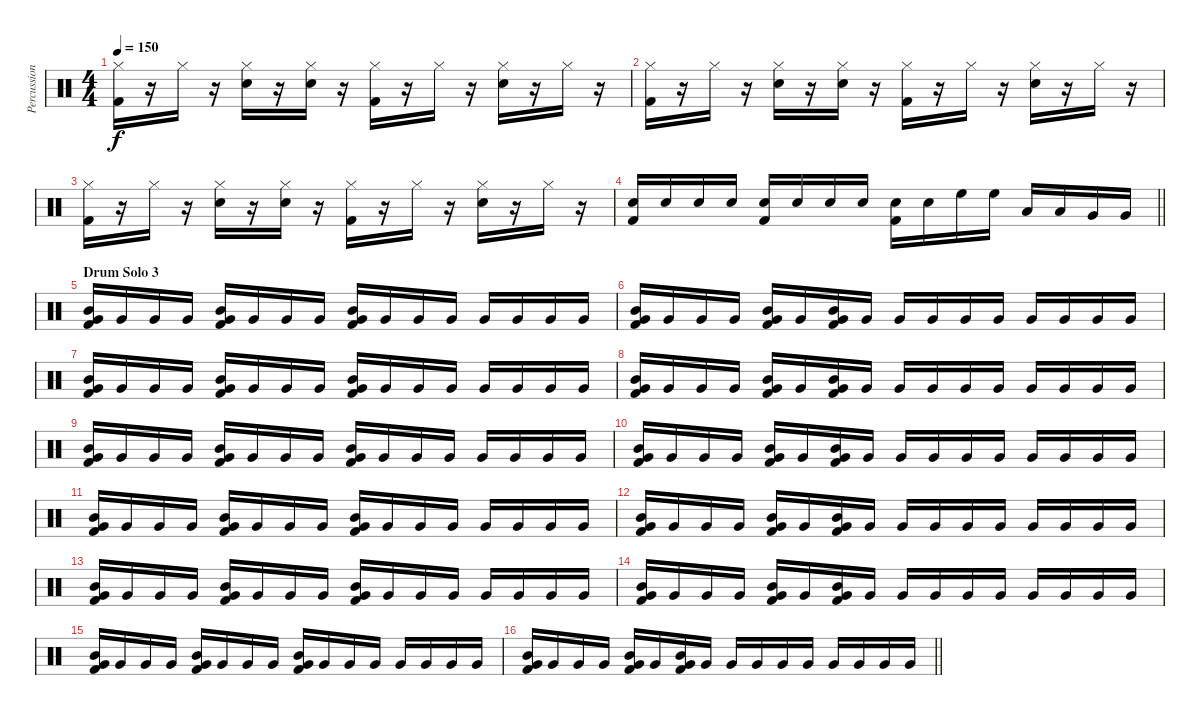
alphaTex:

\track ("Percussion" "Percussion") {instrument percussion}
\staff {score}
\articulation defaults
\ts (4 4)
\tempo 150
\clef neutral
\ks c
("Hi-Hat (closed)" "Kick (hit) 2").16{dy f} r.16 "Hi-Hat (closed)".16 r.16 ("Hi-Hat (closed)" "Snare (hit) 2").16 r.16 ("Hi-Hat (closed)" "Snare (hit) 2").16 r.16 ("Hi-Hat (closed)" "Kick (hit) 2").16 r.16 "Hi-Hat (closed)".16 r.16 ("Hi-Hat (closed)" "Snare (hit) 2").16 r.16 "Hi-Hat (closed)".16 r.16 |
("Hi-Hat (closed)" "Kick (hit) 2").16 r.16 "Hi-Hat (closed)".16 r.16 ("Hi-Hat (closed)" "Snare (hit) 2").16 r.16 ("Hi-Hat (closed)" "Snare (hit) 2").16 r.16 ("Hi-Hat (closed)" "Kick (hit) 2").16 r.16 "Hi-Hat (closed)".16 r.16 ("Hi-Hat (closed)" "Snare (hit) 2").16 r.16 "Hi-Hat (closed)".16 r.16 |
("Hi-Hat (closed)" "Kick (hit) 2").16 r.16 "Hi-Hat (closed)".16 r.16 ("Hi-Hat (closed)" "Snare (hit) 2").16 r.16 ("Hi-Hat (closed)" "Snare (hit) 2").16 r.16 ("Hi-Hat (closed)" "Kick (hit) 2").16 r.16 "Hi-Hat (closed)".16 r.16 ("Hi-Hat (closed)" "Snare (hit) 2").16 r.16 "Hi-Hat (closed)".16 r.16 |
\barLineRight lightlight
("Snare (hit) 2" "Kick (hit) 2").16 "Snare (hit) 2".16 "Snare (hit) 2".16 "Snare (hit) 2".16 ("Snare (hit) 2" "Kick (hit) 2").16 "Snare (hit) 2".16 "Snare (hit) 2".16 "Snare (hit) 2".16 ("Snare (hit) 2" "Kick (hit) 2").16 "Snare (hit) 2".16 "High Floor Tom (hit)".16 "High Floor Tom (hit)".16 "Low Tom (hit)".16 "Low Tom (hit)".16 "Very Low Tom (hit)".16 "Very Low Tom (hit)".16 |
\section ("" "Drum Solo 3")
("Mid Tom (hit)" "Very Low Tom (hit)" "Kick (hit) 2").16 "Very Low Tom (hit)".16 "Very Low Tom (hit)".16 "Very Low Tom (hit)".16 ("Mid Tom (hit)" "Very Low Tom (hit)" "Kick (hit) 2").16 "Very Low Tom (hit)".16 "Very Low Tom (hit)".16 "Very Low Tom (hit)".16 ("Mid Tom (hit)" "Very Low Tom (hit)" "Kick (hit) 2").16 "Very Low Tom (hit)".16 "Very Low Tom (hit)".16 "Very Low Tom (hit)".16 "Very Low Tom (hit)".16 "Very Low Tom (hit)".16 "Very Low Tom (hit)".16 "Very Low Tom (hit)".16 |
("Mid Tom (hit)" "Very Low Tom (hit)" "Kick (hit) 2").16 "Very Low Tom (hit)".16 "Very Low Tom (hit)".16 "Very Low Tom (hit)".16 ("Mid Tom (hit)" "Very Low Tom (hit)" "Kick (hit) 2").16 "Very Low Tom (hit)".16 ("Mid Tom (hit)" "Very Low Tom (hit)" "Kick (hit) 2").16 "Very Low Tom (hit)".16 "Very Low Tom (hit)".16 "Very Low Tom (hit)".16 "Very Low Tom (hit)".16 "Very Low Tom (hit)".16 "Very Low Tom (hit)".16 "Very Low Tom (hit)".16 "Very Low Tom (hit)".16 "Very Low Tom (hit)".16 |
("Mid Tom (hit)" "Very Low Tom (hit)" "Kick (hit) 2").16 "Very Low Tom (hit)".16 "Very Low Tom (hit)".16 "Very Low Tom (hit)".16 ("Mid Tom (hit)" "Very Low Tom (hit)" "Kick (hit) 2").16 "Very Low Tom (hit)".16 "Very Low Tom (hit)".16 "Very Low Tom (hit)".16 ("Mid Tom (hit)" "Very Low Tom (hit)" "Kick (hit) 2").16 "Very Low Tom (hit)".16 "Very Low Tom (hit)".16 "Very Low Tom (hit)".16 "Very Low Tom (hit)".16 "Very Low Tom (hit)".16 "Very Low Tom (hit)".16 "Very Low Tom (hit)".16 |
("Mid Tom (hit)" "Very Low Tom (hit)" "Kick (hit) 2").16 "Very Low Tom (hit)".16 "Very Low Tom (hit)".16 "Very Low Tom (hit)".16 ("Mid Tom (hit)" "Very Low Tom (hit)" "Kick (hit) 2").16 "Very Low Tom (hit)".16 ("Mid Tom (hit)" "Very Low Tom (hit)" "Kick (hit) 2").16 "Very Low Tom (hit)".16 "Very Low Tom (hit)".16 "Very Low Tom (hit)".16 "Very Low Tom (hit)".16 "Very Low Tom (hit)".16 "Very Low Tom (hit)".16 "Very Low Tom (hit)".16 "Very Low Tom (hit)".16 "Very Low Tom (hit)".16 |
("Mid Tom (hit)" "Very Low Tom (hit)" "Kick (hit) 2").16 "Very Low Tom (hit)".16 "Very Low Tom (hit)".16 "Very Low Tom (hit)".16 ("Mid Tom (hit)" "Very Low Tom (hit)" "Kick (hit) 2").16 "Very Low Tom (hit)".16 "Very Low Tom (hit)".16 "Very Low Tom (hit)".16 ("Mid Tom (hit)" "Very Low Tom (hit)" "Kick (hit) 2").16 "Very Low Tom (hit)".16 "Very Low Tom (hit)".16 "Very Low Tom (hit)".16 "Very Low Tom (hit)".16 "Very Low Tom (hit)".16 "Very Low Tom (hit)".16 "Very Low Tom (hit)".16 |
("Mid Tom (hit)" "Very Low Tom (hit)" "Kick (hit) 2").16 "Very Low Tom (hit)".16 "Very Low Tom (hit)".16 "Very Low Tom (hit)".16 ("Mid Tom (hit)" "Very Low Tom (hit)" "Kick (hit) 2").16 "Very Low Tom (hit)".16 ("Mid Tom (hit)" "Very Low Tom (hit)" "Kick (hit) 2").16 "Very Low Tom (hit)".16 "Very Low Tom (hit)".16 "Very Low Tom (hit)".16 "Very Low Tom (hit)".16 "Very Low Tom (hit)".16 "Very Low Tom (hit)".16 "Very Low Tom (hit)".16 "Very Low Tom (hit)".16 "Very Low Tom (hit)".16 |
("Mid Tom (hit)" "Very Low Tom (hit)" "Kick (hit) 2").16 "Very Low Tom (hit)".16 "Very Low Tom (hit)".16 "Very Low Tom (hit)".16 ("Mid Tom (hit)" "Very Low Tom (hit)" "Kick (hit) 2").16 "Very Low Tom (hit)".16 "Very Low Tom (hit)".16 "Very Low Tom (hit)".16 ("Mid Tom (hit)" "Very Low Tom (hit)" "Kick (hit) 2").16 "Very Low Tom (hit)".16 "Very Low Tom (hit)".16 "Very Low Tom (hit)".16 "Very Low Tom (hit)".16 "Very Low Tom (hit)".16 "Very Low Tom (hit)".16 "Very Low Tom (hit)".16 |
("Mid Tom (hit)" "Very Low Tom (hit)" "Kick (hit) 2").16 "Very Low Tom (hit)".16 "Very Low Tom (hit)".16 "Very Low Tom (hit)".16 ("Mid Tom (hit)" "Very Low Tom (hit)" "Kick (hit) 2").16 "Very Low Tom (hit)".16 ("Mid Tom (hit)" "Very Low Tom (hit)" "Kick (hit) 2").16 "Very Low Tom (hit)".16 "Very Low Tom (hit)".16 "Very Low Tom (hit)".16 "Very Low Tom (hit)".16 "Very Low Tom (hit)".16 "Very Low Tom (hit)".16 "Very Low Tom (hit)".16 "Very Low Tom (hit)".16 "Very Low Tom (hit)".16 |
("Mid Tom (hit)" "Very Low Tom (hit)" "Kick (hit) 2").16 "Very Low Tom (hit)".16 "Very Low Tom (hit)".16 "Very Low Tom (hit)".16 ("Mid Tom (hit)" "Very Low Tom (hit)" "Kick (hit) 2").16 "Very Low Tom (hit)".16 "Very Low Tom (hit)".16 "Very Low Tom (hit)".16 ("Mid Tom (hit)" "Very Low Tom (hit)" "Kick (hit) 2").16 "Very Low Tom (hit)".16 "Very Low Tom (hit)".16 "Very Low Tom (hit)".16 "Very Low Tom (hit)".16 "Very Low Tom (hit)".16 "Very Low Tom (hit)".16 "Very Low Tom (hit)".16 |
("Mid Tom (hit)" "Very Low Tom (hit)" "Kick (hit) 2").16 "Very Low Tom (hit)".16 "Very Low Tom (hit)".16 "Very Low Tom (hit)".16 ("Mid Tom (hit)" "Very Low Tom (hit)" "Kick (hit) 2").16 "Very Low Tom (hit)".16 ("Mid Tom (hit)" "Very Low Tom (hit)" "Kick (hit) 2").16 "Very Low Tom (hit)".16 "Very Low Tom (hit)".16 "Very Low Tom (hit)".16 "Very Low Tom (hit)".16 "Very Low Tom (hit)".16 "Very Low Tom (hit)".16 "Very Low Tom (hit)".16 "Very Low Tom (hit)".16 "Very Low Tom (hit)".16 |
("Mid Tom (hit)" "Very Low Tom (hit)" "Kick (hit) 2").16 "Very Low Tom (hit)".16 "Very Low Tom (hit)".16 "Very Low Tom (hit)".16 ("Mid Tom (hit)" "Very Low Tom (hit)" "Kick (hit) 2").16 "Very Low Tom (hit)".16 "Very Low Tom (hit)".16 "Very Low Tom (hit)".16 ("Mid Tom (hit)" "Very Low Tom (hit)" "Kick (hit) 2").16 "Very Low Tom (hit)".16 "Very Low Tom (hit)".16 "Very Low Tom (hit)".16 "Very Low Tom (hit)".16 "Very Low Tom (hit)".16 "Very Low Tom (hit)".16 "Very Low Tom (hit)".16 |
\barLineRight lightlight
("Mid Tom (hit)" "Very Low Tom (hit)" "Kick (hit) 2").16 "Very Low Tom (hit)".16 "Very Low Tom (hit)".16 "Very Low Tom (hit)".16 ("Mid Tom (hit)" "Very Low Tom (hit)" "Kick (hit) 2").16 "Very Low Tom (hit)".16 ("Mid Tom (hit)" "Very Low Tom (hit)" "Kick (hit) 2").16 "Very Low Tom (hit)".16 "Very Low Tom (hit)".16 "Very Low Tom (hit)".16 "Very Low Tom (hit)".16 "Very Low Tom (hit)".16 "Very Low Tom (hit)".16 "Very Low Tom (hit)".16 "Very Low Tom (hit)".16 "Very Low Tom (hit)".16
